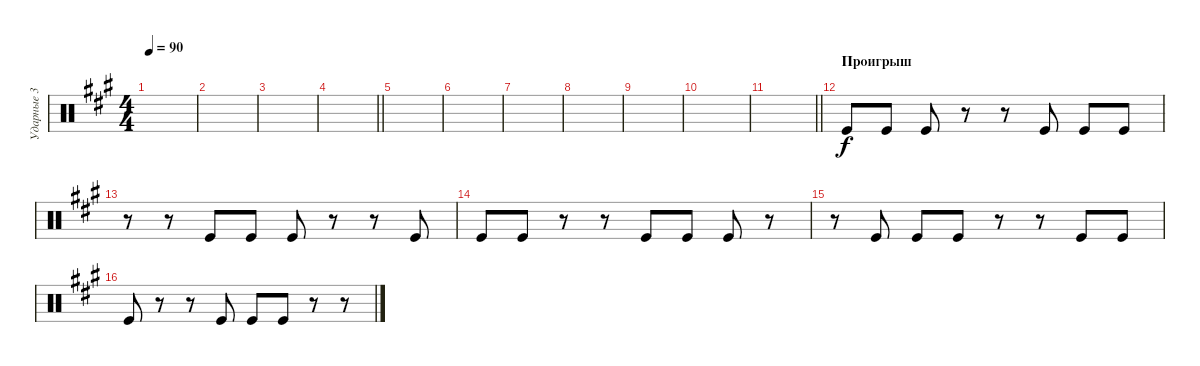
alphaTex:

\track ("Ударные 3" "Ударные 3") {instrument percussion}
\staff {score}
\articulation defaults
\ts (4 4)
\tempo 90
\clef neutral
\ks f#minor
|
|
|
\barLineRight lightlight
|
|
|
|
|
|
|
\barLineRight lightlight
|
\section ("" "Проигрыш")
"Kick (hit)".8 "Kick (hit)".8 "Kick (hit)".8 r.8 r.8 "Kick (hit)".8 "Kick (hit)".8 "Kick (hit)".8 |
r.8 r.8 "Kick (hit)".8 "Kick (hit)".8 "Kick (hit)".8 r.8 r.8 "Kick (hit)".8 |
"Kick (hit)".8 "Kick (hit)".8 r.8 r.8 "Kick (hit)".8 "Kick (hit)".8 "Kick (hit)".8 r.8 |
r.8 "Kick (hit)".8 "Kick (hit)".8 "Kick (hit)".8 r.8 r.8 "Kick (hit)".8 "Kick (hit)".8 |
"Kick (hit)".8 r.8 r.8 "Kick (hit)".8 "Kick (hit)".8 "Kick (hit)".8 r.8 r.8
